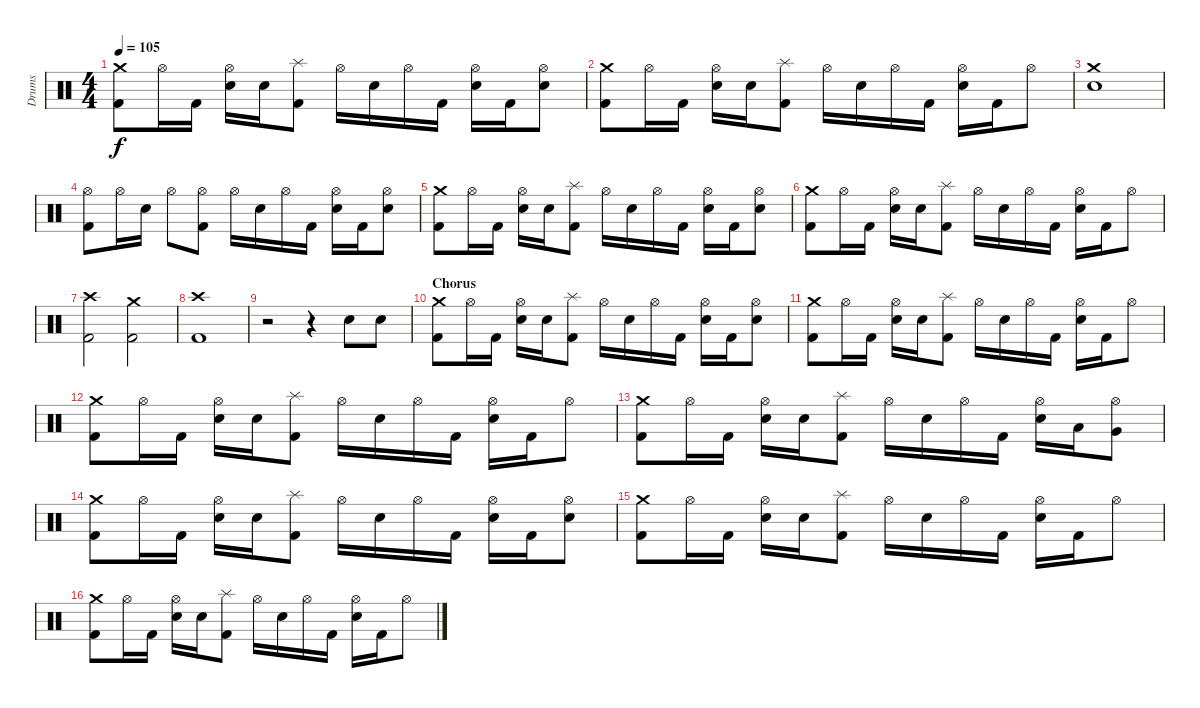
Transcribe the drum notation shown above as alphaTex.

\track ("Drums" "Drums") {instrument percussion}
\staff {score}
\articulation defaults
\ts (4 4)
\tempo 105
\clef neutral
\ks c
("Crash medium (hit)" "Kick (hit) 2").8{dy f} "Hi-Hat (open)".16 "Kick (hit) 2".16 ("Hi-Hat (open)" "Electric Snare (hit)").16 "Electric Snare (hit)".16 ("Splash (hit)" "Kick (hit) 2").8 "Hi-Hat (open)".16 "Electric Snare (hit)".16 "Hi-Hat (open)".16 "Kick (hit) 2".16 ("Hi-Hat (open)" "Electric Snare (hit)").16 "Kick (hit) 2".16 ("Hi-Hat (open)" "Electric Snare (hit)").8 |
("Crash medium (hit)" "Kick (hit) 2").8 "Hi-Hat (open)".16 "Kick (hit) 2".16 ("Hi-Hat (open)" "Electric Snare (hit)").16 "Electric Snare (hit)".16 ("Splash (hit)" "Kick (hit) 2").8 "Hi-Hat (open)".16 "Electric Snare (hit)".16 "Hi-Hat (open)".16 "Kick (hit) 2".16 ("Hi-Hat (open)" "Electric Snare (hit)").16 "Kick (hit) 2".16 "Hi-Hat (open)".8 |
("Crash medium (hit)" "Electric Snare (hit)").1 |
("Hi-Hat (open)" "Kick (hit) 2").8 "Hi-Hat (open)".16 "Electric Snare (hit)".16 "Hi-Hat (open)".8 ("Hi-Hat (open)" "Kick (hit) 2").8 "Hi-Hat (open)".16 "Electric Snare (hit)".16 "Hi-Hat (open)".16 "Kick (hit) 2".16 ("Hi-Hat (open)" "Electric Snare (hit)").16 "Kick (hit) 2".16 ("Hi-Hat (open)" "Electric Snare (hit)").8 |
("Crash medium (hit)" "Kick (hit) 2").8 "Hi-Hat (open)".16 "Kick (hit) 2".16 ("Hi-Hat (open)" "Electric Snare (hit)").16 "Electric Snare (hit)".16 ("Splash (hit)" "Kick (hit) 2").8 "Hi-Hat (open)".16 "Electric Snare (hit)".16 "Hi-Hat (open)".16 "Kick (hit) 2".16 ("Hi-Hat (open)" "Electric Snare (hit)").16 "Kick (hit) 2".16 ("Hi-Hat (open)" "Electric Snare (hit)").8 |
("Crash medium (hit)" "Kick (hit) 2").8 "Hi-Hat (open)".16 "Kick (hit) 2".16 ("Hi-Hat (open)" "Electric Snare (hit)").16 "Electric Snare (hit)".16 ("Splash (hit)" "Kick (hit) 2").8 "Hi-Hat (open)".16 "Electric Snare (hit)".16 "Hi-Hat (open)".16 "Kick (hit) 2".16 ("Hi-Hat (open)" "Electric Snare (hit)").16 "Kick (hit) 2".16 "Hi-Hat (open)".8 |
("Crash high (hit)" "Kick (hit) 2").2 ("Crash medium (hit)" "Kick (hit) 2").2 |
("Crash high (hit)" "Kick (hit) 2").1 |
r.2 r.4 "Electric Snare (hit)".8 "Electric Snare (hit)".8 |
\section ("" "Chorus")
("Crash medium (hit)" "Kick (hit) 2").8 "Hi-Hat (open)".16 "Kick (hit) 2".16 ("Hi-Hat (open)" "Electric Snare (hit)").16 "Electric Snare (hit)".16 ("Splash (hit)" "Kick (hit) 2").8 "Hi-Hat (open)".16 "Electric Snare (hit)".16 "Hi-Hat (open)".16 "Kick (hit) 2".16 ("Hi-Hat (open)" "Electric Snare (hit)").16 "Kick (hit) 2".16 ("Hi-Hat (open)" "Electric Snare (hit)").8 |
("Crash medium (hit)" "Kick (hit) 2").8 "Hi-Hat (open)".16 "Kick (hit) 2".16 ("Hi-Hat (open)" "Electric Snare (hit)").16 "Electric Snare (hit)".16 ("Splash (hit)" "Kick (hit) 2").8 "Hi-Hat (open)".16 "Electric Snare (hit)".16 "Hi-Hat (open)".16 "Kick (hit) 2".16 ("Hi-Hat (open)" "Electric Snare (hit)").16 "Kick (hit) 2".16 "Hi-Hat (open)".8 |
("Crash medium (hit)" "Kick (hit) 2").8 "Hi-Hat (open)".16 "Kick (hit) 2".16 ("Hi-Hat (open)" "Electric Snare (hit)").16 "Electric Snare (hit)".16 ("Splash (hit)" "Kick (hit) 2").8 "Hi-Hat (open)".16 "Electric Snare (hit)".16 "Hi-Hat (open)".16 "Kick (hit) 2".16 ("Hi-Hat (open)" "Electric Snare (hit)").16 "Kick (hit) 2".16 "Hi-Hat (open)".8 |
("Crash medium (hit)" "Kick (hit) 2").8 "Hi-Hat (open)".16 "Kick (hit) 2".16 ("Hi-Hat (open)" "Electric Snare (hit)").16 "Electric Snare (hit)".16 ("Splash (hit)" "Kick (hit) 2").8 "Hi-Hat (open)".16 "Electric Snare (hit)".16 "Hi-Hat (open)".16 "Kick (hit) 2".16 ("Hi-Hat (open)" "Electric Snare (hit)").16 "Low Tom (hit)".16 ("Hi-Hat (open)" "Very Low Tom (hit)").8 |
("Crash medium (hit)" "Kick (hit) 2").8 "Hi-Hat (open)".16 "Kick (hit) 2".16 ("Hi-Hat (open)" "Electric Snare (hit)").16 "Electric Snare (hit)".16 ("Splash (hit)" "Kick (hit) 2").8 "Hi-Hat (open)".16 "Electric Snare (hit)".16 "Hi-Hat (open)".16 "Kick (hit) 2".16 ("Hi-Hat (open)" "Electric Snare (hit)").16 "Kick (hit) 2".16 ("Hi-Hat (open)" "Electric Snare (hit)").8 |
("Crash medium (hit)" "Kick (hit) 2").8 "Hi-Hat (open)".16 "Kick (hit) 2".16 ("Hi-Hat (open)" "Electric Snare (hit)").16 "Electric Snare (hit)".16 ("Splash (hit)" "Kick (hit) 2").8 "Hi-Hat (open)".16 "Electric Snare (hit)".16 "Hi-Hat (open)".16 "Kick (hit) 2".16 ("Hi-Hat (open)" "Electric Snare (hit)").16 "Kick (hit) 2".16 "Hi-Hat (open)".8 |
("Crash medium (hit)" "Kick (hit) 2").8 "Hi-Hat (open)".16 "Kick (hit) 2".16 ("Hi-Hat (open)" "Electric Snare (hit)").16 "Electric Snare (hit)".16 ("Splash (hit)" "Kick (hit) 2").8 "Hi-Hat (open)".16 "Electric Snare (hit)".16 "Hi-Hat (open)".16 "Kick (hit) 2".16 ("Hi-Hat (open)" "Electric Snare (hit)").16 "Kick (hit) 2".16 "Hi-Hat (open)".8
